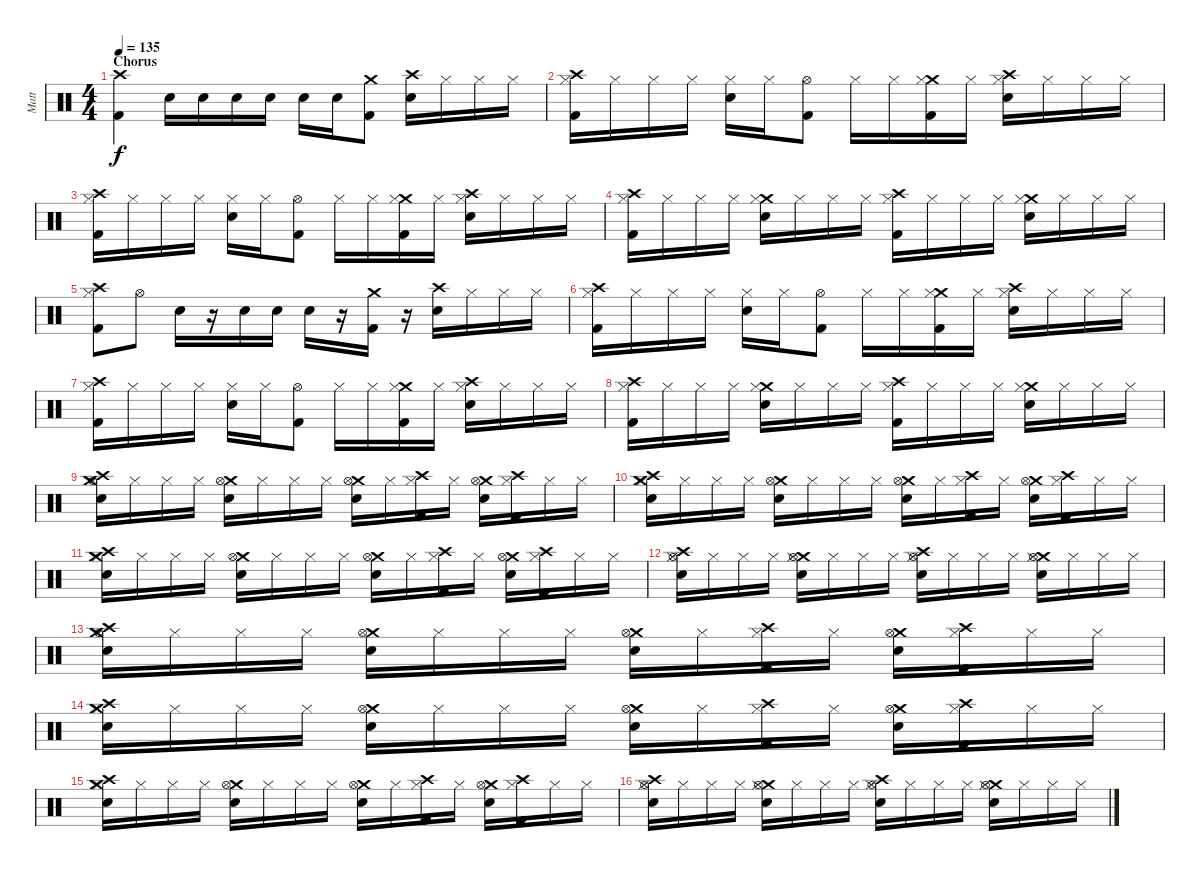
\track ("Matt" "Matt") {instrument percussion}
\staff {score}
\articulation defaults
\ts (4 4)
\section ("" "Chorus")
\tempo 135
\clef neutral
\ks c
("Crash high (hit)" "Kick (hit) 2").4{dy f} "Snare (hit) 2".16 "Snare (hit) 2".16 "Snare (hit) 2".16 "Snare (hit) 2".16 "Snare (hit) 2".16 "Snare (hit) 2".16 ("Crash medium (hit)" "Kick (hit) 2").8 ("Crash high (hit)" "Snare (hit) 2").16 "Hi-Hat (closed)".16 "Hi-Hat (closed)".16 "Hi-Hat (closed)".16 |
("Crash high (hit)" "Hi-Hat (closed)" "Kick (hit) 2").16 "Hi-Hat (closed)".16 "Hi-Hat (closed)".16 "Hi-Hat (closed)".16 ("Hi-Hat (closed)" "Snare (hit) 2").16 "Hi-Hat (closed)".16 ("Hi-Hat (open)" "Kick (hit) 2").8 "Hi-Hat (closed)".16 "Hi-Hat (closed)".16 ("Crash medium (hit)" "Hi-Hat (closed)" "Kick (hit) 2").16 "Hi-Hat (closed)".16 ("Crash high (hit)" "Hi-Hat (closed)" "Snare (hit) 2").16 "Hi-Hat (closed)".16 "Hi-Hat (closed)".16 "Hi-Hat (closed)".16 |
("Crash high (hit)" "Hi-Hat (closed)" "Kick (hit) 2").16 "Hi-Hat (closed)".16 "Hi-Hat (closed)".16 "Hi-Hat (closed)".16 ("Hi-Hat (closed)" "Snare (hit) 2").16 "Hi-Hat (closed)".16 ("Hi-Hat (open)" "Kick (hit) 2").8 "Hi-Hat (closed)".16 "Hi-Hat (closed)".16 ("Crash medium (hit)" "Hi-Hat (closed)" "Kick (hit) 2").16 "Hi-Hat (closed)".16 ("Crash high (hit)" "Hi-Hat (closed)" "Snare (hit) 2").16 "Hi-Hat (closed)".16 "Hi-Hat (closed)".16 "Hi-Hat (closed)".16 |
("Crash high (hit)" "Hi-Hat (closed)" "Kick (hit) 2").16 "Hi-Hat (closed)".16 "Hi-Hat (closed)".16 "Hi-Hat (closed)".16 ("Crash medium (hit)" "Hi-Hat (closed)" "Snare (hit) 2").16 "Hi-Hat (closed)".16 "Hi-Hat (closed)".16 "Hi-Hat (closed)".16 ("Crash high (hit)" "Hi-Hat (closed)" "Kick (hit) 2").16 "Hi-Hat (closed)".16 "Hi-Hat (closed)".16 "Hi-Hat (closed)".16 ("Crash medium (hit)" "Hi-Hat (closed)" "Snare (hit) 2").16 "Hi-Hat (closed)".16 "Hi-Hat (closed)".16 "Hi-Hat (closed)".16 |
("Crash high (hit)" "Hi-Hat (closed)" "Kick (hit) 2").8 "Hi-Hat (open)".8 "Snare (hit) 2".16 r.16 "Snare (hit) 2".16 "Snare (hit) 2".16 "Snare (hit) 2".16 r.16 ("Crash medium (hit)" "Kick (hit) 2").16 r.16 ("Crash high (hit)" "Snare (hit) 2").16 "Hi-Hat (closed)".16 "Hi-Hat (closed)".16 "Hi-Hat (closed)".16 |
("Crash high (hit)" "Hi-Hat (closed)" "Kick (hit) 2").16 "Hi-Hat (closed)".16 "Hi-Hat (closed)".16 "Hi-Hat (closed)".16 ("Hi-Hat (closed)" "Snare (hit) 2").16 "Hi-Hat (closed)".16 ("Hi-Hat (open)" "Kick (hit) 2").8 "Hi-Hat (closed)".16 "Hi-Hat (closed)".16 ("Crash medium (hit)" "Hi-Hat (closed)" "Kick (hit) 2").16 "Hi-Hat (closed)".16 ("Crash high (hit)" "Hi-Hat (closed)" "Snare (hit) 2").16 "Hi-Hat (closed)".16 "Hi-Hat (closed)".16 "Hi-Hat (closed)".16 |
("Crash high (hit)" "Hi-Hat (closed)" "Kick (hit) 2").16 "Hi-Hat (closed)".16 "Hi-Hat (closed)".16 "Hi-Hat (closed)".16 ("Hi-Hat (closed)" "Snare (hit) 2").16 "Hi-Hat (closed)".16 ("Hi-Hat (open)" "Kick (hit) 2").8 "Hi-Hat (closed)".16 "Hi-Hat (closed)".16 ("Crash medium (hit)" "Hi-Hat (closed)" "Kick (hit) 2").16 "Hi-Hat (closed)".16 ("Crash high (hit)" "Hi-Hat (closed)" "Snare (hit) 2").16 "Hi-Hat (closed)".16 "Hi-Hat (closed)".16 "Hi-Hat (closed)".16 |
("Crash high (hit)" "Hi-Hat (closed)" "Kick (hit) 2").16 "Hi-Hat (closed)".16 "Hi-Hat (closed)".16 "Hi-Hat (closed)".16 ("Crash medium (hit)" "Hi-Hat (closed)" "Snare (hit) 2").16 "Hi-Hat (closed)".16 "Hi-Hat (closed)".16 "Hi-Hat (closed)".16 ("Crash high (hit)" "Hi-Hat (closed)" "Kick (hit) 2").16 "Hi-Hat (closed)".16 "Hi-Hat (closed)".16 "Hi-Hat (closed)".16 ("Crash medium (hit)" "Hi-Hat (closed)" "Snare (hit) 2").16 "Hi-Hat (closed)".16 "Hi-Hat (closed)".16 "Hi-Hat (closed)".16 |
("Crash medium (hit)" "Hi-Hat (open)" "Crash high (hit)" "Snare (hit) 2").16 "Hi-Hat (closed)".16 "Hi-Hat (closed)".16 "Hi-Hat (closed)".16 ("Crash medium (hit)" "Hi-Hat (open)" "Snare (hit) 2").16 "Hi-Hat (closed)".16 "Hi-Hat (closed)".16 "Hi-Hat (closed)".16 ("Crash medium (hit)" "Hi-Hat (open)" "Snare (hit) 2").16 "Hi-Hat (closed)".16 ("Hi-Hat (closed)" "Crash high (hit)" "Kick (hit) 2").16 "Hi-Hat (closed)".16 ("Crash medium (hit)" "Hi-Hat (open)" "Snare (hit) 2").16 ("Hi-Hat (closed)" "Crash high (hit)" "Kick (hit) 2").16 "Hi-Hat (closed)".16 "Hi-Hat (closed)".16 |
("Crash medium (hit)" "Hi-Hat (closed)" "Crash high (hit)" "Snare (hit) 2").16 "Hi-Hat (closed)".16 "Hi-Hat (closed)".16 "Hi-Hat (closed)".16 ("Crash medium (hit)" "Hi-Hat (open)" "Snare (hit) 2").16 "Hi-Hat (closed)".16 "Hi-Hat (closed)".16 "Hi-Hat (closed)".16 ("Crash medium (hit)" "Hi-Hat (open)" "Snare (hit) 2").16 "Hi-Hat (closed)".16 ("Crash high (hit)" "Hi-Hat (closed)" "Kick (hit) 2").16 "Hi-Hat (closed)".16 ("Crash medium (hit)" "Hi-Hat (open)" "Snare (hit) 2").16 ("Crash high (hit)" "Hi-Hat (closed)" "Kick (hit) 2").16 "Hi-Hat (closed)".16 "Hi-Hat (closed)".16 |
("Crash medium (hit)" "Hi-Hat (closed)" "Crash high (hit)" "Snare (hit) 2").16 "Hi-Hat (closed)".16 "Hi-Hat (closed)".16 "Hi-Hat (closed)".16 ("Crash medium (hit)" "Hi-Hat (open)" "Snare (hit) 2").16 "Hi-Hat (closed)".16 "Hi-Hat (closed)".16 "Hi-Hat (closed)".16 ("Crash medium (hit)" "Hi-Hat (open)" "Snare (hit) 2").16 "Hi-Hat (closed)".16 ("Crash high (hit)" "Hi-Hat (closed)" "Kick (hit) 2").16 "Hi-Hat (closed)".16 ("Crash medium (hit)" "Hi-Hat (open)" "Snare (hit) 2").16 ("Crash high (hit)" "Hi-Hat (closed)" "Kick (hit) 2").16 "Hi-Hat (closed)".16 "Hi-Hat (closed)".16 |
("Crash high (hit)" "Hi-Hat (closed)" "Hi-Hat (open)" "Snare (hit) 2").16 "Hi-Hat (closed)".16 "Hi-Hat (closed)".16 "Hi-Hat (closed)".16 ("Crash medium (hit)" "Hi-Hat (closed)" "Hi-Hat (open)" "Snare (hit) 2").16 "Hi-Hat (closed)".16 "Hi-Hat (closed)".16 "Hi-Hat (closed)".16 ("Crash high (hit)" "Hi-Hat (closed)" "Hi-Hat (open)" "Snare (hit) 2").16 "Hi-Hat (closed)".16 "Hi-Hat (closed)".16 "Hi-Hat (closed)".16 ("Crash medium (hit)" "Hi-Hat (closed)" "Hi-Hat (open)" "Snare (hit) 2").16 "Hi-Hat (closed)".16 "Hi-Hat (closed)".16 "Hi-Hat (closed)".16 |
("Crash medium (hit)" "Hi-Hat (open)" "Crash high (hit)" "Snare (hit) 2").16 "Hi-Hat (closed)".16 "Hi-Hat (closed)".16 "Hi-Hat (closed)".16 ("Crash medium (hit)" "Hi-Hat (open)" "Snare (hit) 2").16 "Hi-Hat (closed)".16 "Hi-Hat (closed)".16 "Hi-Hat (closed)".16 ("Crash medium (hit)" "Hi-Hat (open)" "Snare (hit) 2").16 "Hi-Hat (closed)".16 ("Hi-Hat (closed)" "Crash high (hit)" "Kick (hit) 2").16 "Hi-Hat (closed)".16 ("Crash medium (hit)" "Hi-Hat (open)" "Snare (hit) 2").16 ("Hi-Hat (closed)" "Crash high (hit)" "Kick (hit) 2").16 "Hi-Hat (closed)".16 "Hi-Hat (closed)".16 |
("Crash medium (hit)" "Hi-Hat (closed)" "Crash high (hit)" "Snare (hit) 2").16 "Hi-Hat (closed)".16 "Hi-Hat (closed)".16 "Hi-Hat (closed)".16 ("Crash medium (hit)" "Hi-Hat (open)" "Snare (hit) 2").16 "Hi-Hat (closed)".16 "Hi-Hat (closed)".16 "Hi-Hat (closed)".16 ("Crash medium (hit)" "Hi-Hat (open)" "Snare (hit) 2").16 "Hi-Hat (closed)".16 ("Crash high (hit)" "Hi-Hat (closed)" "Kick (hit) 2").16 "Hi-Hat (closed)".16 ("Crash medium (hit)" "Hi-Hat (open)" "Snare (hit) 2").16 ("Crash high (hit)" "Hi-Hat (closed)" "Kick (hit) 2").16 "Hi-Hat (closed)".16 "Hi-Hat (closed)".16 |
("Crash medium (hit)" "Hi-Hat (closed)" "Crash high (hit)" "Snare (hit) 2").16 "Hi-Hat (closed)".16 "Hi-Hat (closed)".16 "Hi-Hat (closed)".16 ("Crash medium (hit)" "Hi-Hat (open)" "Snare (hit) 2").16 "Hi-Hat (closed)".16 "Hi-Hat (closed)".16 "Hi-Hat (closed)".16 ("Crash medium (hit)" "Hi-Hat (open)" "Snare (hit) 2").16 "Hi-Hat (closed)".16 ("Crash high (hit)" "Hi-Hat (closed)" "Kick (hit) 2").16 "Hi-Hat (closed)".16 ("Crash medium (hit)" "Hi-Hat (open)" "Snare (hit) 2").16 ("Crash high (hit)" "Hi-Hat (closed)" "Kick (hit) 2").16 "Hi-Hat (closed)".16 "Hi-Hat (closed)".16 |
("Crash high (hit)" "Hi-Hat (closed)" "Hi-Hat (open)" "Snare (hit) 2").16 "Hi-Hat (closed)".16 "Hi-Hat (closed)".16 "Hi-Hat (closed)".16 ("Crash medium (hit)" "Hi-Hat (closed)" "Hi-Hat (open)" "Snare (hit) 2").16 "Hi-Hat (closed)".16 "Hi-Hat (closed)".16 "Hi-Hat (closed)".16 ("Crash high (hit)" "Hi-Hat (closed)" "Hi-Hat (open)" "Snare (hit) 2").16 "Hi-Hat (closed)".16 "Hi-Hat (closed)".16 "Hi-Hat (closed)".16 ("Crash medium (hit)" "Hi-Hat (closed)" "Hi-Hat (open)" "Snare (hit) 2").16 "Hi-Hat (closed)".16 "Hi-Hat (closed)".16 "Hi-Hat (closed)".16
